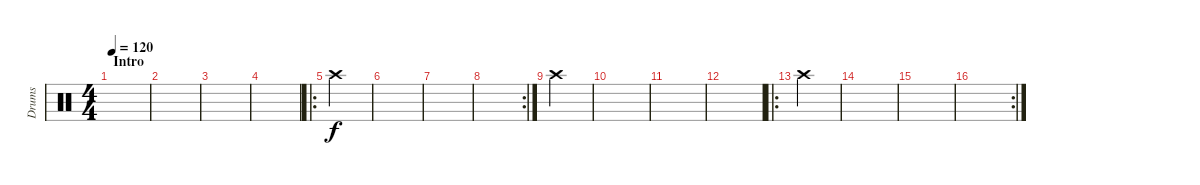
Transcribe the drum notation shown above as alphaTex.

\track ("Drums" "Drums") {instrument percussion}
\staff {score}
\articulation defaults
\ts (4 4)
\section ("" "Intro")
\tempo 120
\clef neutral
\ks c
|
|
|
|
\ro "Crash high (hit)".4
|
|
|
\rc 2
|
"Crash high (hit)".4 |
|
|
|
\ro "Crash high (hit)".4
|
|
|
\rc 2
